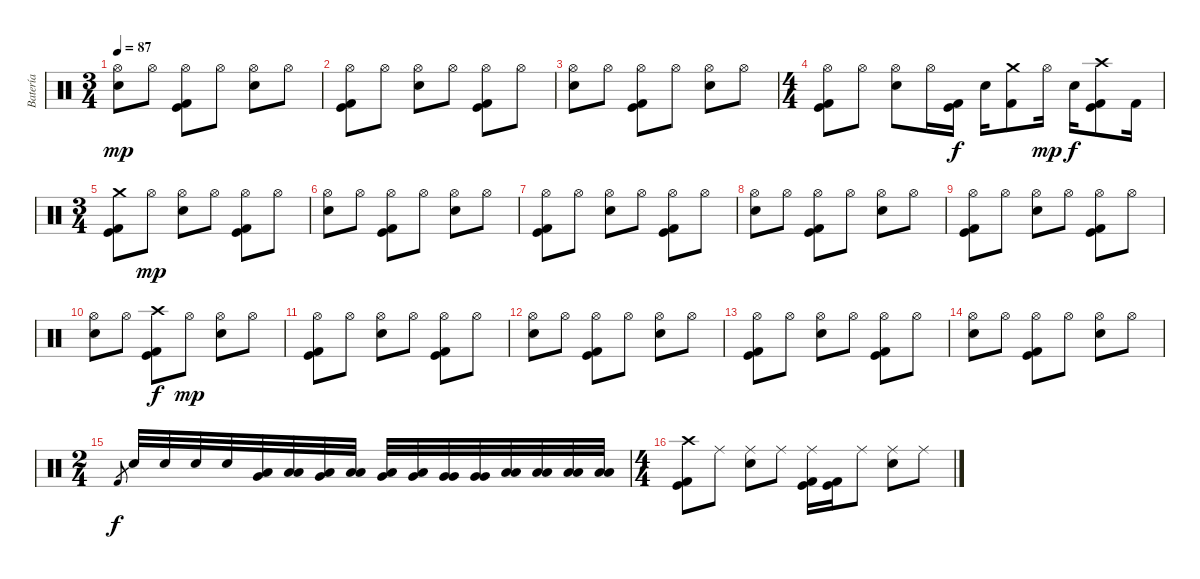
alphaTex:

\track ("Batería" "Batería") {instrument percussion}
\staff {score}
\articulation defaults
\ts (3 4)
\tempo 87
\clef neutral
\ks c
("Hi-Hat (open)" "Electric Snare (hit)").8{dy mp} "Hi-Hat (open)".8 ("Hi-Hat (open)" "Kick (hit)" "Kick (hit) 2").8 "Hi-Hat (open)".8 ("Hi-Hat (open)" "Electric Snare (hit)").8 "Hi-Hat (open)".8 |
("Hi-Hat (open)" "Kick (hit)" "Kick (hit) 2").8 "Hi-Hat (open)".8 ("Hi-Hat (open)" "Electric Snare (hit)").8 "Hi-Hat (open)".8 ("Hi-Hat (open)" "Kick (hit)" "Kick (hit) 2").8 "Hi-Hat (open)".8 |
("Hi-Hat (open)" "Electric Snare (hit)").8 "Hi-Hat (open)".8 ("Hi-Hat (open)" "Kick (hit)" "Kick (hit) 2").8 "Hi-Hat (open)".8 ("Hi-Hat (open)" "Electric Snare (hit)").8 "Hi-Hat (open)".8 |
\ts (4 4)
("Hi-Hat (open)" "Kick (hit)" "Kick (hit) 2").8 "Hi-Hat (open)".8 ("Hi-Hat (open)" "Electric Snare (hit)").8 "Hi-Hat (open)".16 ("Kick (hit)" "Kick (hit) 2").16{dy f} "Electric Snare (hit)".16 ("Crash medium (hit)" "Kick (hit) 2").8 "Hi-Hat (open)".16{dy mp} "Electric Snare (hit)".16{dy f} ("Crash high (hit)" "Kick (hit)" "Kick (hit) 2").8 "Kick (hit) 2".16 |
\ts (3 4)
("Crash medium (hit)" "Kick (hit)" "Kick (hit) 2").8 "Hi-Hat (open)".8{dy mp} ("Hi-Hat (open)" "Electric Snare (hit)").8 "Hi-Hat (open)".8 ("Hi-Hat (open)" "Kick (hit)" "Kick (hit) 2").8 "Hi-Hat (open)".8 |
("Hi-Hat (open)" "Electric Snare (hit)").8 "Hi-Hat (open)".8 ("Hi-Hat (open)" "Kick (hit)" "Kick (hit) 2").8 "Hi-Hat (open)".8 ("Hi-Hat (open)" "Electric Snare (hit)").8 "Hi-Hat (open)".8 |
("Hi-Hat (open)" "Kick (hit)" "Kick (hit) 2").8 "Hi-Hat (open)".8 ("Hi-Hat (open)" "Electric Snare (hit)").8 "Hi-Hat (open)".8 ("Hi-Hat (open)" "Kick (hit)" "Kick (hit) 2").8 "Hi-Hat (open)".8 |
("Hi-Hat (open)" "Electric Snare (hit)").8 "Hi-Hat (open)".8 ("Hi-Hat (open)" "Kick (hit)" "Kick (hit) 2").8 "Hi-Hat (open)".8 ("Hi-Hat (open)" "Electric Snare (hit)").8 "Hi-Hat (open)".8 |
("Hi-Hat (open)" "Kick (hit)" "Kick (hit) 2").8 "Hi-Hat (open)".8 ("Hi-Hat (open)" "Electric Snare (hit)").8 "Hi-Hat (open)".8 ("Hi-Hat (open)" "Kick (hit)" "Kick (hit) 2").8 "Hi-Hat (open)".8 |
("Hi-Hat (open)" "Electric Snare (hit)").8 "Hi-Hat (open)".8 ("Crash high (hit)" "Kick (hit)" "Kick (hit) 2").8{dy f} "Hi-Hat (open)".8{dy mp} ("Hi-Hat (open)" "Electric Snare (hit)").8 "Hi-Hat (open)".8 |
("Hi-Hat (open)" "Kick (hit)" "Kick (hit) 2").8 "Hi-Hat (open)".8 ("Hi-Hat (open)" "Electric Snare (hit)").8 "Hi-Hat (open)".8 ("Hi-Hat (open)" "Kick (hit)" "Kick (hit) 2").8 "Hi-Hat (open)".8 |
("Hi-Hat (open)" "Electric Snare (hit)").8 "Hi-Hat (open)".8 ("Hi-Hat (open)" "Kick (hit)" "Kick (hit) 2").8 "Hi-Hat (open)".8 ("Hi-Hat (open)" "Electric Snare (hit)").8 "Hi-Hat (open)".8 |
("Hi-Hat (open)" "Kick (hit)" "Kick (hit) 2").8 "Hi-Hat (open)".8 ("Hi-Hat (open)" "Electric Snare (hit)").8 "Hi-Hat (open)".8 ("Hi-Hat (open)" "Kick (hit)" "Kick (hit) 2").8 "Hi-Hat (open)".8 |
("Hi-Hat (open)" "Electric Snare (hit)").8 "Hi-Hat (open)".8 ("Hi-Hat (open)" "Kick (hit)" "Kick (hit) 2").8 "Hi-Hat (open)".8 ("Hi-Hat (open)" "Electric Snare (hit)").8 "Hi-Hat (open)".8 |
\ts (2 4)
"Kick (hit) 2".8{gr dy f} "Electric Snare (hit)".32 "Electric Snare (hit)".32 "Electric Snare (hit)".32 "Electric Snare (hit)".32 ("Low Tom (hit)" "Very Low Tom (hit)").32 ("Low Tom (hit)" "Low Floor Tom (hit)").32 ("Low Tom (hit)" "Very Low Tom (hit)").32 ("Low Tom (hit)" "Low Floor Tom (hit)").32 ("Very Low Tom (hit)" "Low Tom (hit)").32 ("Very Low Tom (hit)" "Low Floor Tom (hit)").32 ("Very Low Tom (hit)" "Very Low Tom (hit)").32 ("Very Low Tom (hit)" "Very Low Tom (hit)").32 ("Low Floor Tom (hit)" "Low Floor Tom (hit)").32 ("Low Floor Tom (hit)" "Low Floor Tom (hit)").32 ("Low Floor Tom (hit)" "Low Floor Tom (hit)").32 ("Low Floor Tom (hit)" "Low Floor Tom (hit)").32 |
\ts (4 4)
("Crash high (hit)" "Kick (hit)" "Kick (hit) 2").8 "Ride (middle)".8 ("Ride (middle)" "Electric Snare (hit)").8 "Ride (middle)".8 ("Ride (middle)" "Kick (hit)" "Kick (hit) 2").16 ("Kick (hit)" "Kick (hit) 2").16 "Ride (middle)".8 ("Ride (middle)" "Electric Snare (hit)").8 "Ride (middle)".8
